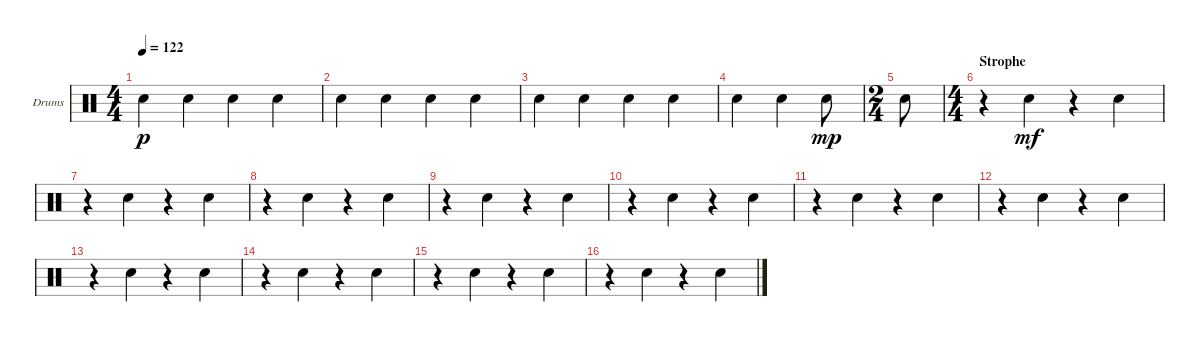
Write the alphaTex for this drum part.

\defaultSystemsLayout 4
\bracketExtendMode groupsimilarinstruments
\firstSystemTrackNameOrientation horizontal
\otherSystemsTrackNameOrientation horizontal
\track ("Drumkit" "Drums") {instrument percussion}
\staff {score}
\articulation defaults
\ts (4 4)
\tempo 122
\clef neutral
\ks c "Snare (hit) 2".4{dy p} "Snare (hit) 2".4 "Snare (hit) 2".4 "Snare (hit) 2".4
|
"Snare (hit) 2".4 "Snare (hit) 2".4 "Snare (hit) 2".4 "Snare (hit) 2".4 |
"Snare (hit) 2".4 "Snare (hit) 2".4 "Snare (hit) 2".4 "Snare (hit) 2".4 |
"Snare (hit) 2".4 "Snare (hit) 2".4 "Snare (hit) 2".8{dy mp} |
\ts (2 4)
"Snare (hit) 2".8 |
\ts (4 4)
\section ("" "Strophe")
r.4 "Snare (hit) 2".4{dy mf} r.4 "Snare (hit) 2".4 |
r.4 "Snare (hit) 2".4 r.4 "Snare (hit) 2".4 |
r.4 "Snare (hit) 2".4 r.4 "Snare (hit) 2".4 |
r.4 "Snare (hit) 2".4 r.4 "Snare (hit) 2".4 |
r.4 "Snare (hit) 2".4 r.4 "Snare (hit) 2".4 |
r.4 "Snare (hit) 2".4 r.4 "Snare (hit) 2".4 |
r.4 "Snare (hit) 2".4 r.4 "Snare (hit) 2".4 |
r.4 "Snare (hit) 2".4 r.4 "Snare (hit) 2".4 |
r.4 "Snare (hit) 2".4 r.4 "Snare (hit) 2".4 |
r.4 "Snare (hit) 2".4 r.4 "Snare (hit) 2".4 |
r.4 "Snare (hit) 2".4 r.4 "Snare (hit) 2".4
